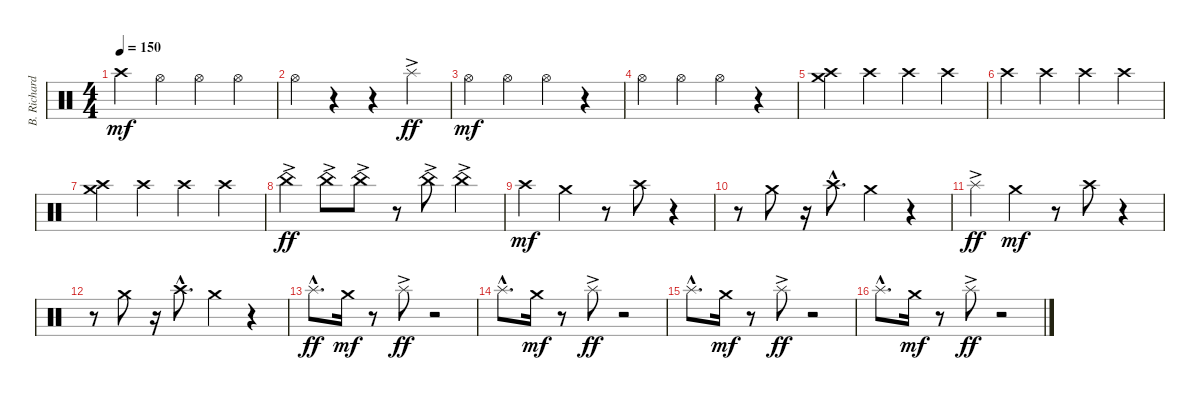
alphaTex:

\track ("B. Richardson Drums" "B. Richard") {instrument percussion}
\staff {score}
\articulation defaults
\ts (4 4)
\tempo 150
\clef neutral
\ks c "Crash high (hit)".4{dy mf} "Hi-Hat (open)".4 "Hi-Hat (open)".4 "Hi-Hat (open)".4
|
"Hi-Hat (open)".4 r.4 r.4 "Splash (hit)"{ac}.4{dy ff} |
"Hi-Hat (open)".4{dy mf} "Hi-Hat (open)".4 "Hi-Hat (open)".4 r.4 |
"Hi-Hat (open)".4 "Hi-Hat (open)".4 "Hi-Hat (open)".4 r.4 |
("Crash high (hit)" "Crash medium (hit)").4 "Crash high (hit)".4 "Crash high (hit)".4 "Crash high (hit)".4 |
"Crash high (hit)".4 "Crash high (hit)".4 "Crash high (hit)".4 "Crash high (hit)".4 |
("Crash high (hit)" "Crash medium (hit)").4 "Crash high (hit)".4 "Crash high (hit)".4 "Crash high (hit)".4 |
"China (hit)"{ac}.4{dy ff} "China (hit)"{ac}.8 "China (hit)"{ac}.8 r.8 "China (hit)"{ac}.8 "China (hit)"{ac}.4 |
"Crash high (hit)".4{dy mf} "Crash medium (hit)".4 r.8 "Crash high (hit)".8 r.4 |
r.8 "Crash medium (hit)".8 r.16 "Crash high (hit)"{hac}.8{d} "Crash medium (hit)".4 r.4 |
"Splash (hit)"{ac}.4{dy ff} "Crash medium (hit)".4{dy mf} r.8 "Crash high (hit)".8 r.4 |
r.8 "Crash medium (hit)".8 r.16 "Crash high (hit)"{hac}.8{d} "Crash medium (hit)".4 r.4 |
"Splash (hit)"{hac}.8{d dy ff} "Crash medium (hit)".16{dy mf} r.8 "Splash (hit)"{ac}.8{dy ff} r.2 |
"Splash (hit)"{hac}.8{d} "Crash medium (hit)".16{dy mf} r.8 "Splash (hit)"{ac}.8{dy ff} r.2 |
"Splash (hit)"{hac}.8{d} "Crash medium (hit)".16{dy mf} r.8 "Splash (hit)"{ac}.8{dy ff} r.2 |
"Splash (hit)"{hac}.8{d} "Crash medium (hit)".16{dy mf} r.8 "Splash (hit)"{ac}.8{dy ff} r.2
